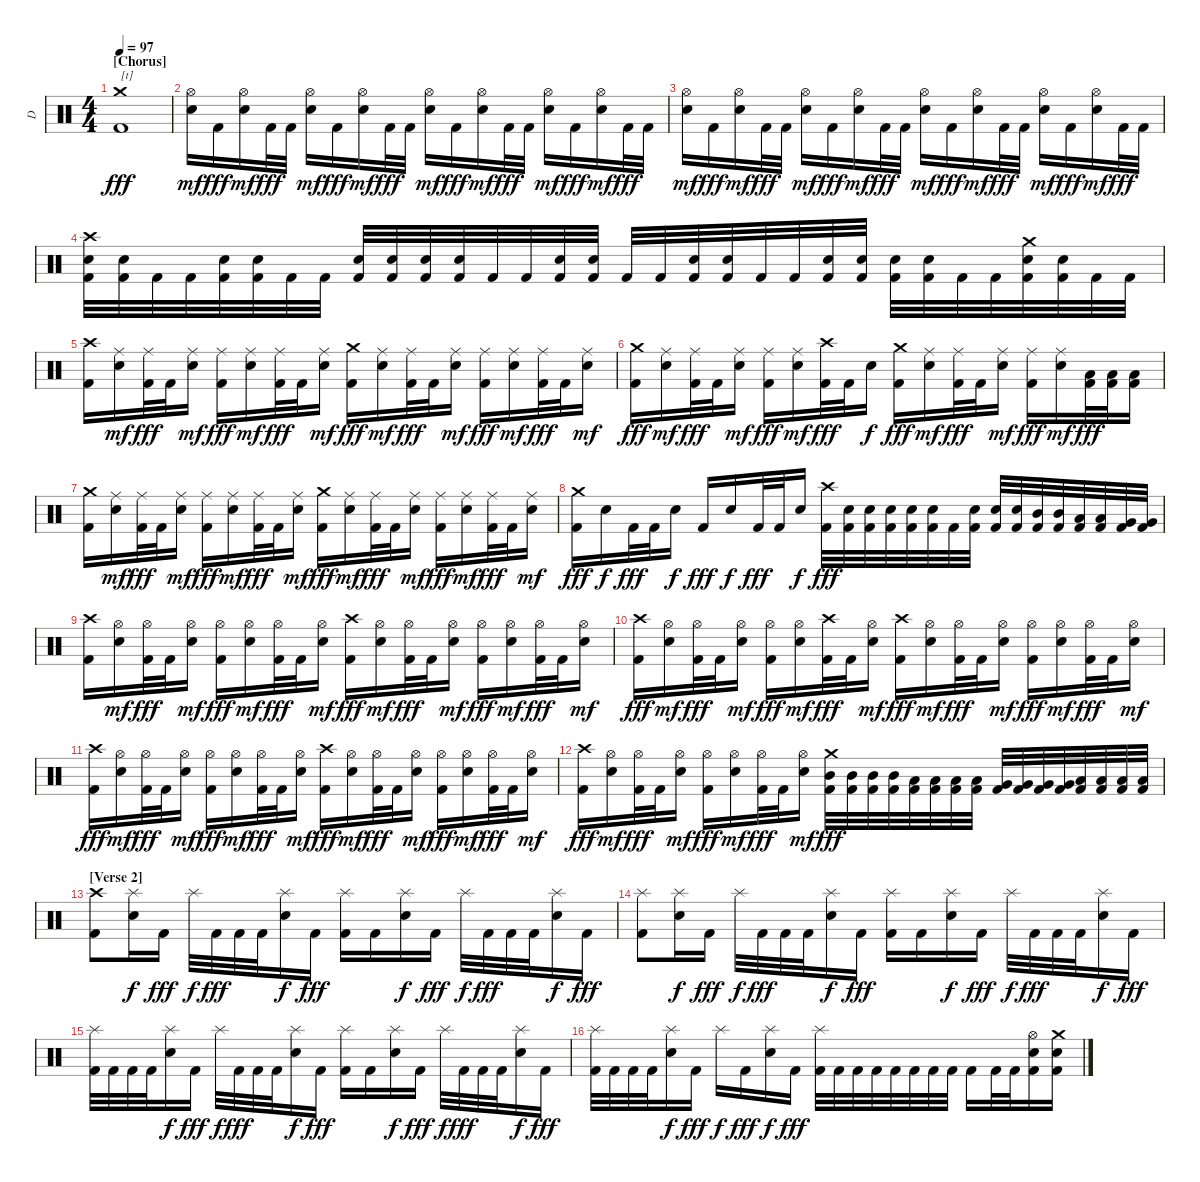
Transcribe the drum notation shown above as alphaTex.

\track ("D" "D") {instrument percussion}
\staff {score}
\articulation defaults
\ts (4 4)
\section ("" "[Chorus]")
\tempo 97
\clef neutral
\ks c
("Crash medium (hit)" "Kick (hit) 2").1{txt "[t]" dy fff} |
("Hi-Hat (open)" "Snare (hit) 2").16{dy mf} "Kick (hit) 2".16{dy fff} ("Hi-Hat (open)" "Snare (hit) 2").16{dy mf} "Kick (hit) 2".32{dy fff} "Kick (hit) 2".32 ("Hi-Hat (open)" "Snare (hit) 2").16{dy mf} "Kick (hit) 2".16{dy fff} ("Hi-Hat (open)" "Snare (hit) 2").16{dy mf} "Kick (hit) 2".32{dy fff} "Kick (hit) 2".32 ("Hi-Hat (open)" "Snare (hit) 2").16{dy mf} "Kick (hit) 2".16{dy fff} ("Hi-Hat (open)" "Snare (hit) 2").16{dy mf} "Kick (hit) 2".32{dy fff} "Kick (hit) 2".32 ("Hi-Hat (open)" "Snare (hit) 2").16{dy mf} "Kick (hit) 2".16{dy fff} ("Hi-Hat (open)" "Snare (hit) 2").16{dy mf} "Kick (hit) 2".32{dy fff} "Kick (hit) 2".32 |
("Hi-Hat (open)" "Snare (hit) 2").16{dy mf} "Kick (hit) 2".16{dy fff} ("Hi-Hat (open)" "Snare (hit) 2").16{dy mf} "Kick (hit) 2".32{dy fff} "Kick (hit) 2".32 ("Hi-Hat (open)" "Snare (hit) 2").16{dy mf} "Kick (hit) 2".16{dy fff} ("Hi-Hat (open)" "Snare (hit) 2").16{dy mf} "Kick (hit) 2".32{dy fff} "Kick (hit) 2".32 ("Hi-Hat (open)" "Snare (hit) 2").16{dy mf} "Kick (hit) 2".16{dy fff} ("Hi-Hat (open)" "Snare (hit) 2").16{dy mf} "Kick (hit) 2".32{dy fff} "Kick (hit) 2".32 ("Hi-Hat (open)" "Snare (hit) 2").16{dy mf} "Kick (hit) 2".16{dy fff} ("Hi-Hat (open)" "Snare (hit) 2").16{dy mf} "Kick (hit) 2".32{dy fff} "Kick (hit) 2".32 |
("Crash high (hit)" "Snare (hit) 2" "Kick (hit) 2").32 ("Snare (hit) 2" "Kick (hit) 2").32 "Kick (hit) 2".32 "Kick (hit) 2".32 ("Snare (hit) 2" "Kick (hit) 2").32 ("Snare (hit) 2" "Kick (hit) 2").32 "Kick (hit) 2".32 "Kick (hit) 2".32 ("Snare (hit) 2" "Kick (hit) 2").32 ("Snare (hit) 2" "Kick (hit) 2").32 ("Snare (hit) 2" "Kick (hit) 2").32 ("Snare (hit) 2" "Kick (hit) 2").32 "Kick (hit) 2".32 "Kick (hit) 2".32 ("Snare (hit) 2" "Kick (hit) 2").32 ("Snare (hit) 2" "Kick (hit) 2").32 "Kick (hit) 2".32 "Kick (hit) 2".32 ("Snare (hit) 2" "Kick (hit) 2").32 ("Snare (hit) 2" "Kick (hit) 2").32 "Kick (hit) 2".32 "Kick (hit) 2".32 ("Snare (hit) 2" "Kick (hit) 2").32 ("Snare (hit) 2" "Kick (hit) 2").32 ("Snare (hit) 2" "Kick (hit) 2").32 ("Snare (hit) 2" "Kick (hit) 2").32 "Kick (hit) 2".32 "Kick (hit) 2".32 ("Crash medium (hit)" "Snare (hit) 2" "Kick (hit) 2").32 ("Snare (hit) 2" "Kick (hit) 2").32 "Kick (hit) 2".32 "Kick (hit) 2".32 |
("Crash high (hit)" "Kick (hit) 2").16 ("Ride (middle)" "Snare (hit) 2").16{dy mf} ("Ride (middle)" "Kick (hit) 2").32{dy fff} "Kick (hit) 2".32 ("Ride (middle)" "Snare (hit) 2").16{dy mf} ("Ride (middle)" "Kick (hit) 2").16{dy fff} ("Ride (middle)" "Snare (hit) 2").16{dy mf} ("Ride (middle)" "Kick (hit) 2").32{dy fff} "Kick (hit) 2".32 ("Ride (middle)" "Snare (hit) 2").16{dy mf} ("Crash medium (hit)" "Kick (hit) 2").16{dy fff} ("Ride (middle)" "Snare (hit) 2").16{dy mf} ("Ride (middle)" "Kick (hit) 2").32{dy fff} "Kick (hit) 2".32 ("Ride (middle)" "Snare (hit) 2").16{dy mf} ("Ride (middle)" "Kick (hit) 2").16{dy fff} ("Ride (middle)" "Snare (hit) 2").16{dy mf} ("Ride (middle)" "Kick (hit) 2").32{dy fff} "Kick (hit) 2".32 ("Ride (middle)" "Snare (hit) 2").16{dy mf} |
("Crash medium (hit)" "Kick (hit) 2").16{dy fff} ("Ride (middle)" "Snare (hit) 2").16{dy mf} ("Ride (middle)" "Kick (hit) 2").32{dy fff} "Kick (hit) 2".32 ("Ride (middle)" "Snare (hit) 2").16{dy mf} ("Ride (middle)" "Kick (hit) 2").16{dy fff} ("Ride (middle)" "Snare (hit) 2").16{dy mf} ("Crash high (hit)" "Kick (hit) 2").32{dy fff} "Kick (hit) 2".32 "Snare (hit) 2".16{dy f} ("Crash medium (hit)" "Kick (hit) 2").16{dy fff} ("Ride (middle)" "Snare (hit) 2").16{dy mf} ("Ride (middle)" "Kick (hit) 2").32{dy fff} "Kick (hit) 2".32 ("Ride (middle)" "Snare (hit) 2").16{dy mf} ("Ride (middle)" "Kick (hit) 2").16{dy fff} ("Ride (middle)" "Snare (hit) 2").16{dy mf} ("Low Tom (hit)" "Kick (hit) 2").32{dy fff} ("Low Tom (hit)" "Kick (hit) 2").32 ("Low Tom (hit)" "Kick (hit) 2").16 |
("Crash medium (hit)" "Kick (hit) 2").16 ("Ride (middle)" "Snare (hit) 2").16{dy mf} ("Ride (middle)" "Kick (hit) 2").32{dy fff} "Kick (hit) 2".32 ("Ride (middle)" "Snare (hit) 2").16{dy mf} ("Ride (middle)" "Kick (hit) 2").16{dy fff} ("Ride (middle)" "Snare (hit) 2").16{dy mf} ("Ride (middle)" "Kick (hit) 2").32{dy fff} "Kick (hit) 2".32 ("Ride (middle)" "Snare (hit) 2").16{dy mf} ("Crash medium (hit)" "Kick (hit) 2").16{dy fff} ("Ride (middle)" "Snare (hit) 2").16{dy mf} ("Ride (middle)" "Kick (hit) 2").32{dy fff} "Kick (hit) 2".32 ("Ride (middle)" "Snare (hit) 2").16{dy mf} ("Ride (middle)" "Kick (hit) 2").16{dy fff} ("Ride (middle)" "Snare (hit) 2").16{dy mf} ("Ride (middle)" "Kick (hit) 2").32{dy fff} "Kick (hit) 2".32 ("Ride (middle)" "Snare (hit) 2").16{dy mf} |
("Crash medium (hit)" "Kick (hit) 2").16{dy fff} "Snare (hit) 2".16{dy f} "Kick (hit) 2".32{dy fff} "Kick (hit) 2".32 "Snare (hit) 2".16{dy f} "Kick (hit) 2".16{dy fff} "Snare (hit) 2".16{dy f} "Kick (hit) 2".32{dy fff} "Kick (hit) 2".32 "Snare (hit) 2".16{dy f} ("Crash high (hit)" "Kick (hit) 2").32{dy fff} ("Snare (hit) 2" "Kick (hit) 2").32 ("Snare (hit) 2" "Kick (hit) 2").32 ("Snare (hit) 2" "Kick (hit) 2").32 ("Snare (hit) 2" "Kick (hit) 2").32 ("Snare (hit) 2" "Kick (hit) 2").32 "Kick (hit) 2".32 ("Snare (hit) 2" "Kick (hit) 2").32 ("Snare (hit) 2" "Kick (hit) 2").32 ("Snare (hit) 2" "Kick (hit) 2").32 ("Mid Tom (hit)" "Kick (hit) 2").32 ("Mid Tom (hit)" "Kick (hit) 2").32 ("Low Tom (hit)" "Kick (hit) 2").32 ("Low Tom (hit)" "Kick (hit) 2").32 ("Very Low Tom (hit)" "Kick (hit) 2").32 ("Very Low Tom (hit)" "Kick (hit) 2").32 |
\section ("" "")
("Crash high (hit)" "Kick (hit) 2").16 ("Hi-Hat (open)" "Snare (hit) 2").16{dy mf} ("Hi-Hat (open)" "Kick (hit) 2").32{dy fff} "Kick (hit) 2".32 ("Hi-Hat (open)" "Snare (hit) 2").16{dy mf} ("Hi-Hat (open)" "Kick (hit) 2").16{dy fff} ("Hi-Hat (open)" "Snare (hit) 2").16{dy mf} ("Hi-Hat (open)" "Kick (hit) 2").32{dy fff} "Kick (hit) 2".32 ("Hi-Hat (open)" "Snare (hit) 2").16{dy mf} ("Crash high (hit)" "Kick (hit) 2").16{dy fff} ("Hi-Hat (open)" "Snare (hit) 2").16{dy mf} ("Hi-Hat (open)" "Kick (hit) 2").32{dy fff} "Kick (hit) 2".32 ("Hi-Hat (open)" "Snare (hit) 2").16{dy mf} ("Hi-Hat (open)" "Kick (hit) 2").16{dy fff} ("Hi-Hat (open)" "Snare (hit) 2").16{dy mf} ("Hi-Hat (open)" "Kick (hit) 2").32{dy fff} "Kick (hit) 2".32 ("Hi-Hat (open)" "Snare (hit) 2").16{dy mf} |
("Crash high (hit)" "Kick (hit) 2").16{dy fff} ("Hi-Hat (open)" "Snare (hit) 2").16{dy mf} ("Hi-Hat (open)" "Kick (hit) 2").32{dy fff} "Kick (hit) 2".32 ("Hi-Hat (open)" "Snare (hit) 2").16{dy mf} ("Hi-Hat (open)" "Kick (hit) 2").16{dy fff} ("Hi-Hat (open)" "Snare (hit) 2").16{dy mf} ("Crash high (hit)" "Kick (hit) 2").32{dy fff} "Kick (hit) 2".32 ("Hi-Hat (open)" "Snare (hit) 2").16{dy mf} ("Crash high (hit)" "Kick (hit) 2").16{dy fff} ("Hi-Hat (open)" "Snare (hit) 2").16{dy mf} ("Hi-Hat (open)" "Kick (hit) 2").32{dy fff} "Kick (hit) 2".32 ("Hi-Hat (open)" "Snare (hit) 2").16{dy mf} ("Hi-Hat (open)" "Kick (hit) 2").16{dy fff} ("Hi-Hat (open)" "Snare (hit) 2").16{dy mf} ("Hi-Hat (open)" "Kick (hit) 2").32{dy fff} "Kick (hit) 2".32 ("Hi-Hat (open)" "Snare (hit) 2").16{dy mf} |
("Crash high (hit)" "Kick (hit) 2").16{dy fff} ("Hi-Hat (open)" "Snare (hit) 2").16{dy mf} ("Hi-Hat (open)" "Kick (hit) 2").32{dy fff} "Kick (hit) 2".32 ("Hi-Hat (open)" "Snare (hit) 2").16{dy mf} ("Hi-Hat (open)" "Kick (hit) 2").16{dy fff} ("Hi-Hat (open)" "Snare (hit) 2").16{dy mf} ("Hi-Hat (open)" "Kick (hit) 2").32{dy fff} "Kick (hit) 2".32 ("Hi-Hat (open)" "Snare (hit) 2").16{dy mf} ("Crash high (hit)" "Kick (hit) 2").16{dy fff} ("Hi-Hat (open)" "Snare (hit) 2").16{dy mf} ("Hi-Hat (open)" "Kick (hit) 2").32{dy fff} "Kick (hit) 2".32 ("Hi-Hat (open)" "Snare (hit) 2").16{dy mf} ("Hi-Hat (open)" "Kick (hit) 2").16{dy fff} ("Hi-Hat (open)" "Snare (hit) 2").16{dy mf} ("Hi-Hat (open)" "Kick (hit) 2").32{dy fff} "Kick (hit) 2".32 ("Hi-Hat (open)" "Snare (hit) 2").16{dy mf} |
("Crash high (hit)" "Kick (hit) 2").16{dy fff} ("Hi-Hat (open)" "Snare (hit) 2").16{dy mf} ("Hi-Hat (open)" "Kick (hit) 2").32{dy fff} "Kick (hit) 2".32 ("Hi-Hat (open)" "Snare (hit) 2").16{dy mf} ("Hi-Hat (open)" "Kick (hit) 2").16{dy fff} ("Hi-Hat (open)" "Snare (hit) 2").16{dy mf} ("Hi-Hat (open)" "Kick (hit) 2").32{dy fff} "Kick (hit) 2".32 ("Hi-Hat (open)" "Snare (hit) 2").16{dy mf} ("Crash medium (hit)" "Mid Tom (hit)" "Kick (hit) 2").32{dy fff} ("Mid Tom (hit)" "Kick (hit) 2").32 ("Mid Tom (hit)" "Kick (hit) 2").32 ("Mid Tom (hit)" "Kick (hit) 2").32 ("Low Tom (hit)" "Kick (hit) 2").32 ("Low Tom (hit)" "Kick (hit) 2").32 ("Low Tom (hit)" "Kick (hit) 2").32 ("Low Tom (hit)" "Kick (hit) 2").32 ("Very Low Tom (hit)" "Kick (hit) 2").32 ("Very Low Tom (hit)" "Kick (hit) 2").32 ("Very Low Tom (hit)" "Kick (hit) 2").32 ("Very Low Tom (hit)" "Kick (hit) 2").32 ("Low Floor Tom (hit)" "Kick (hit) 2").32 ("Low Floor Tom (hit)" "Kick (hit) 2").32 ("Low Floor Tom (hit)" "Kick (hit) 2").32 ("Low Floor Tom (hit)" "Kick (hit) 2").32 |
\section ("" "[Verse 2]")
("Crash high (hit)" "Kick (hit) 2").8 ("Splash (hit)" "Snare (hit) 2").16{dy f} "Kick (hit) 2".16{dy fff} "Splash (hit)".32{dy f} "Kick (hit) 2".32{dy fff} "Kick (hit) 2".32 "Kick (hit) 2".32 ("Splash (hit)" "Snare (hit) 2").16{dy f} "Kick (hit) 2".16{dy fff} ("Splash (hit)" "Kick (hit) 2").16 "Kick (hit) 2".16 ("Splash (hit)" "Snare (hit) 2").16{dy f} "Kick (hit) 2".16{dy fff} "Splash (hit)".32{dy f} "Kick (hit) 2".32{dy fff} "Kick (hit) 2".32 "Kick (hit) 2".32 ("Splash (hit)" "Snare (hit) 2").16{dy f} "Kick (hit) 2".16{dy fff} |
("Splash (hit)" "Kick (hit) 2").8 ("Splash (hit)" "Snare (hit) 2").16{dy f} "Kick (hit) 2".16{dy fff} "Splash (hit)".32{dy f} "Kick (hit) 2".32{dy fff} "Kick (hit) 2".32 "Kick (hit) 2".32 ("Splash (hit)" "Snare (hit) 2").16{dy f} "Kick (hit) 2".16{dy fff} ("Splash (hit)" "Kick (hit) 2").16 "Kick (hit) 2".16 ("Splash (hit)" "Snare (hit) 2").16{dy f} "Kick (hit) 2".16{dy fff} "Splash (hit)".32{dy f} "Kick (hit) 2".32{dy fff} "Kick (hit) 2".32 "Kick (hit) 2".32 ("Splash (hit)" "Snare (hit) 2").16{dy f} "Kick (hit) 2".16{dy fff} |
("Splash (hit)" "Kick (hit) 2").32 "Kick (hit) 2".32 "Kick (hit) 2".32 "Kick (hit) 2".32 ("Splash (hit)" "Snare (hit) 2").16{dy f} "Kick (hit) 2".16{dy fff} "Splash (hit)".32{dy f} "Kick (hit) 2".32{dy fff} "Kick (hit) 2".32 "Kick (hit) 2".32 ("Splash (hit)" "Snare (hit) 2").16{dy f} "Kick (hit) 2".16{dy fff} ("Splash (hit)" "Kick (hit) 2").16 "Kick (hit) 2".16 ("Splash (hit)" "Snare (hit) 2").16{dy f} "Kick (hit) 2".16{dy fff} "Splash (hit)".32{dy f} "Kick (hit) 2".32{dy fff} "Kick (hit) 2".32 "Kick (hit) 2".32 ("Splash (hit)" "Snare (hit) 2").16{dy f} "Kick (hit) 2".16{dy fff} |
("Splash (hit)" "Kick (hit) 2").32 "Kick (hit) 2".32 "Kick (hit) 2".32 "Kick (hit) 2".32 ("Splash (hit)" "Snare (hit) 2").16{dy f} "Kick (hit) 2".16{dy fff} "Splash (hit)".16{dy f} "Kick (hit) 2".16{dy fff} ("Splash (hit)" "Snare (hit) 2").16{dy f} "Kick (hit) 2".16{dy fff} ("Splash (hit)" "Kick (hit) 2").32 "Kick (hit) 2".32 "Kick (hit) 2".32 "Kick (hit) 2".32 "Kick (hit) 2".32 "Kick (hit) 2".32 "Kick (hit) 2".32 "Kick (hit) 2".32 "Kick (hit) 2".16 "Kick (hit) 2".32 "Kick (hit) 2".32 ("Hi-Hat (open)" "Snare (hit) 2" "Kick (hit) 2").16 ("Crash medium (hit)" "Snare (hit) 2" "Kick (hit) 2").16
